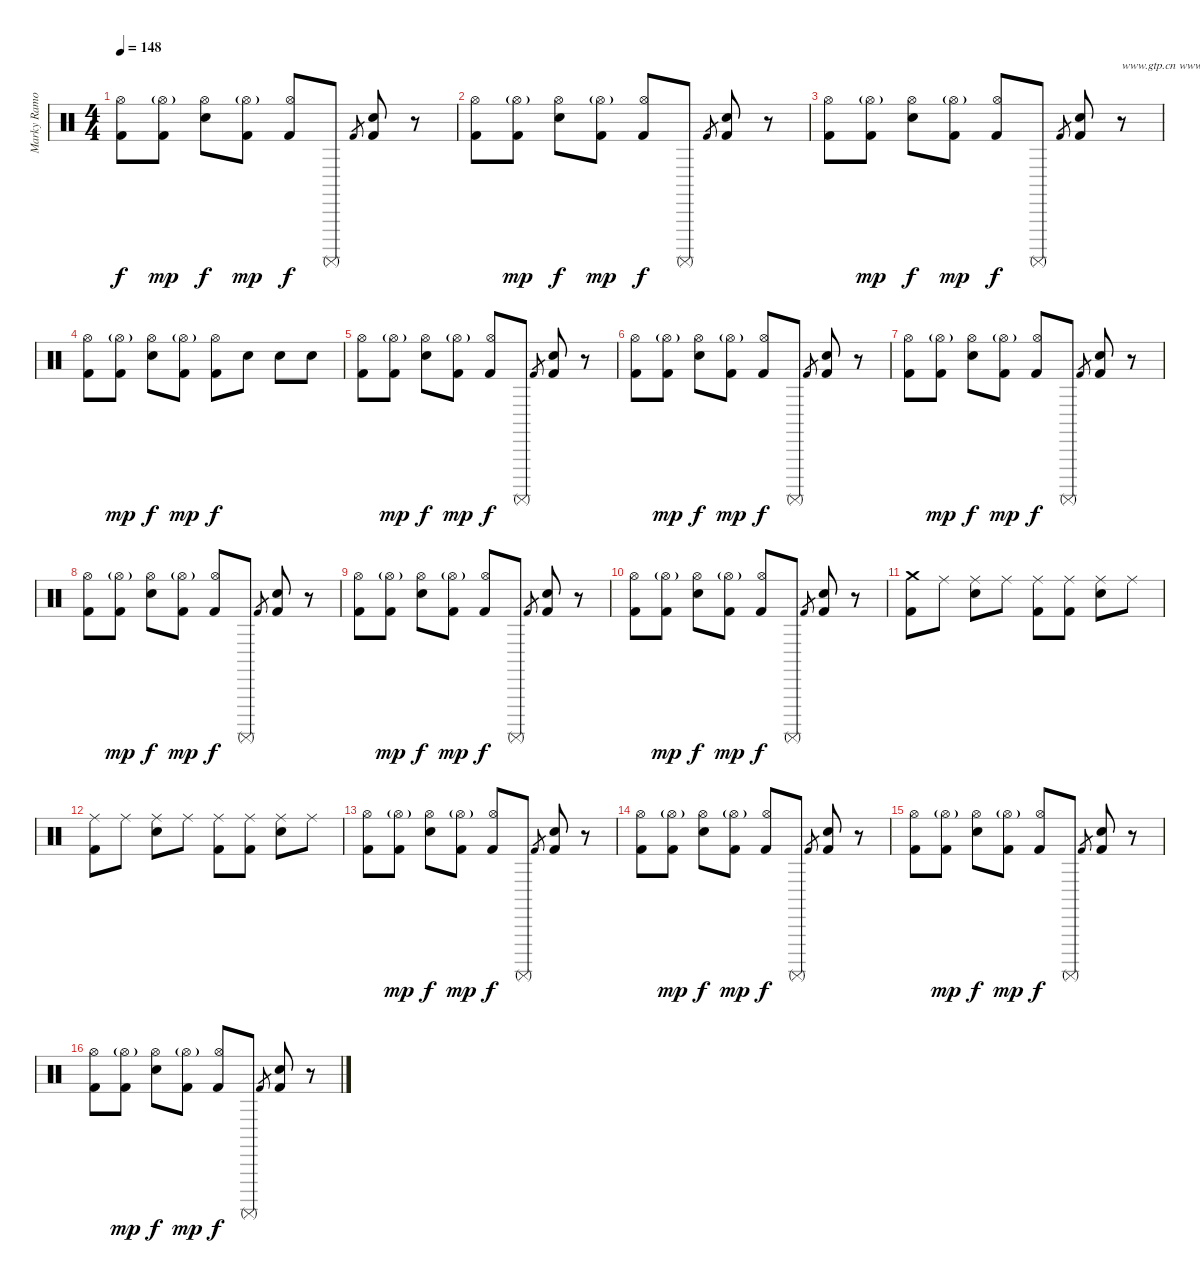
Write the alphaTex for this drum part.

\track ("Marky Ramone" "Marky Ramo") {instrument percussion}
\staff {score}
\articulation defaults
\ts (4 4)
\tempo 148
\clef neutral
\ks c
("Hi-Hat (open)" "Kick (hit) 2").8{dy f} ("Hi-Hat (open)"{g} "Kick (hit) 2").8{dy mp} ("Hi-Hat (open)" "Electric Snare (hit)").8{dy f} ("Hi-Hat (open)"{g} "Kick (hit) 2").8{dy mp} ("Hi-Hat (open)" "Kick (hit) 2").8{dy f} "Surdo (mute)".8 "Kick (hit) 2".8{gr} ("Electric Snare (hit)" "Kick (hit) 2").8{bd 480} r.8 |
("Hi-Hat (open)" "Kick (hit) 2").8 ("Hi-Hat (open)"{g} "Kick (hit) 2").8{dy mp} ("Hi-Hat (open)" "Electric Snare (hit)").8{dy f} ("Hi-Hat (open)"{g} "Kick (hit) 2").8{dy mp} ("Hi-Hat (open)" "Kick (hit) 2").8{dy f} "Surdo (mute)".8 "Kick (hit) 2".8{gr} ("Electric Snare (hit)" "Kick (hit) 2").8{bd 480} r.8 |
("Hi-Hat (open)" "Kick (hit) 2").8 ("Hi-Hat (open)"{g} "Kick (hit) 2").8{dy mp} ("Hi-Hat (open)" "Electric Snare (hit)").8{dy f} ("Hi-Hat (open)"{g} "Kick (hit) 2").8{dy mp} ("Hi-Hat (open)" "Kick (hit) 2").8{dy f} "Surdo (mute)".8 "Kick (hit) 2".8{gr} ("Electric Snare (hit)" "Kick (hit) 2").8{bd 480} r.8{txt "www.gtp.cn www.51gtp.com联合为您提供优秀的GTP!"} |
("Hi-Hat (open)" "Kick (hit) 2").8 ("Hi-Hat (open)"{g} "Kick (hit) 2").8{dy mp} ("Hi-Hat (open)" "Electric Snare (hit)").8{dy f} ("Hi-Hat (open)"{g} "Kick (hit) 2").8{dy mp} ("Hi-Hat (open)" "Kick (hit) 2").8{dy f} "Electric Snare (hit)".8 "Electric Snare (hit)".8 "Electric Snare (hit)".8 |
("Hi-Hat (open)" "Kick (hit) 2").8 ("Hi-Hat (open)"{g} "Kick (hit) 2").8{dy mp} ("Hi-Hat (open)" "Electric Snare (hit)").8{dy f} ("Hi-Hat (open)"{g} "Kick (hit) 2").8{dy mp} ("Hi-Hat (open)" "Kick (hit) 2").8{dy f} "Surdo (mute)".8 "Kick (hit) 2".8{gr} ("Electric Snare (hit)" "Kick (hit) 2").8{bd 480} r.8 |
("Hi-Hat (open)" "Kick (hit) 2").8 ("Hi-Hat (open)"{g} "Kick (hit) 2").8{dy mp} ("Hi-Hat (open)" "Electric Snare (hit)").8{dy f} ("Hi-Hat (open)"{g} "Kick (hit) 2").8{dy mp} ("Hi-Hat (open)" "Kick (hit) 2").8{dy f} "Surdo (mute)".8 "Kick (hit) 2".8{gr} ("Electric Snare (hit)" "Kick (hit) 2").8{bd 480} r.8 |
("Hi-Hat (open)" "Kick (hit) 2").8 ("Hi-Hat (open)"{g} "Kick (hit) 2").8{dy mp} ("Hi-Hat (open)" "Electric Snare (hit)").8{dy f} ("Hi-Hat (open)"{g} "Kick (hit) 2").8{dy mp} ("Hi-Hat (open)" "Kick (hit) 2").8{dy f} "Surdo (mute)".8 "Kick (hit) 2".8{gr} ("Electric Snare (hit)" "Kick (hit) 2").8{bd 480} r.8 |
("Hi-Hat (open)" "Kick (hit) 2").8 ("Hi-Hat (open)"{g} "Kick (hit) 2").8{dy mp} ("Hi-Hat (open)" "Electric Snare (hit)").8{dy f} ("Hi-Hat (open)"{g} "Kick (hit) 2").8{dy mp} ("Hi-Hat (open)" "Kick (hit) 2").8{dy f} "Surdo (mute)".8 "Kick (hit) 2".8{gr} ("Electric Snare (hit)" "Kick (hit) 2").8{bd 480} r.8 |
("Hi-Hat (open)" "Kick (hit) 2").8 ("Hi-Hat (open)"{g} "Kick (hit) 2").8{dy mp} ("Hi-Hat (open)" "Electric Snare (hit)").8{dy f} ("Hi-Hat (open)"{g} "Kick (hit) 2").8{dy mp} ("Hi-Hat (open)" "Kick (hit) 2").8{dy f} "Surdo (mute)".8 "Kick (hit) 2".8{gr} ("Electric Snare (hit)" "Kick (hit) 2").8{bd 480} r.8 |
("Hi-Hat (open)" "Kick (hit) 2").8 ("Hi-Hat (open)"{g} "Kick (hit) 2").8{dy mp} ("Hi-Hat (open)" "Electric Snare (hit)").8{dy f} ("Hi-Hat (open)"{g} "Kick (hit) 2").8{dy mp} ("Hi-Hat (open)" "Kick (hit) 2").8{dy f} "Surdo (mute)".8 "Kick (hit) 2".8{gr} ("Electric Snare (hit)" "Kick (hit) 2").8{bd 480} r.8 |
("Crash medium (hit)" "Kick (hit) 2").8 "Ride (middle)".8 ("Ride (middle)" "Electric Snare (hit)").8 "Ride (middle)".8 ("Ride (middle)" "Kick (hit) 2").8 ("Ride (middle)" "Kick (hit) 2").8 ("Ride (middle)" "Electric Snare (hit)").8 "Ride (middle)".8 |
("Ride (middle)" "Kick (hit) 2").8 "Ride (middle)".8 ("Ride (middle)" "Electric Snare (hit)").8 "Ride (middle)".8 ("Ride (middle)" "Kick (hit) 2").8 ("Ride (middle)" "Kick (hit) 2").8 ("Ride (middle)" "Electric Snare (hit)").8 "Ride (middle)".8 |
("Hi-Hat (open)" "Kick (hit) 2").8 ("Hi-Hat (open)"{g} "Kick (hit) 2").8{dy mp} ("Hi-Hat (open)" "Electric Snare (hit)").8{dy f} ("Hi-Hat (open)"{g} "Kick (hit) 2").8{dy mp} ("Hi-Hat (open)" "Kick (hit) 2").8{dy f} "Surdo (mute)".8 "Kick (hit) 2".8{gr} ("Electric Snare (hit)" "Kick (hit) 2").8{bd 480} r.8 |
("Hi-Hat (open)" "Kick (hit) 2").8 ("Hi-Hat (open)"{g} "Kick (hit) 2").8{dy mp} ("Hi-Hat (open)" "Electric Snare (hit)").8{dy f} ("Hi-Hat (open)"{g} "Kick (hit) 2").8{dy mp} ("Hi-Hat (open)" "Kick (hit) 2").8{dy f} "Surdo (mute)".8 "Kick (hit) 2".8{gr} ("Electric Snare (hit)" "Kick (hit) 2").8{bd 480} r.8 |
("Hi-Hat (open)" "Kick (hit) 2").8 ("Hi-Hat (open)"{g} "Kick (hit) 2").8{dy mp} ("Hi-Hat (open)" "Electric Snare (hit)").8{dy f} ("Hi-Hat (open)"{g} "Kick (hit) 2").8{dy mp} ("Hi-Hat (open)" "Kick (hit) 2").8{dy f} "Surdo (mute)".8 "Kick (hit) 2".8{gr} ("Electric Snare (hit)" "Kick (hit) 2").8{bd 480} r.8 |
("Hi-Hat (open)" "Kick (hit) 2").8 ("Hi-Hat (open)"{g} "Kick (hit) 2").8{dy mp} ("Hi-Hat (open)" "Electric Snare (hit)").8{dy f} ("Hi-Hat (open)"{g} "Kick (hit) 2").8{dy mp} ("Hi-Hat (open)" "Kick (hit) 2").8{dy f} "Surdo (mute)".8 "Kick (hit) 2".8{gr} ("Electric Snare (hit)" "Kick (hit) 2").8{bd 480} r.8
